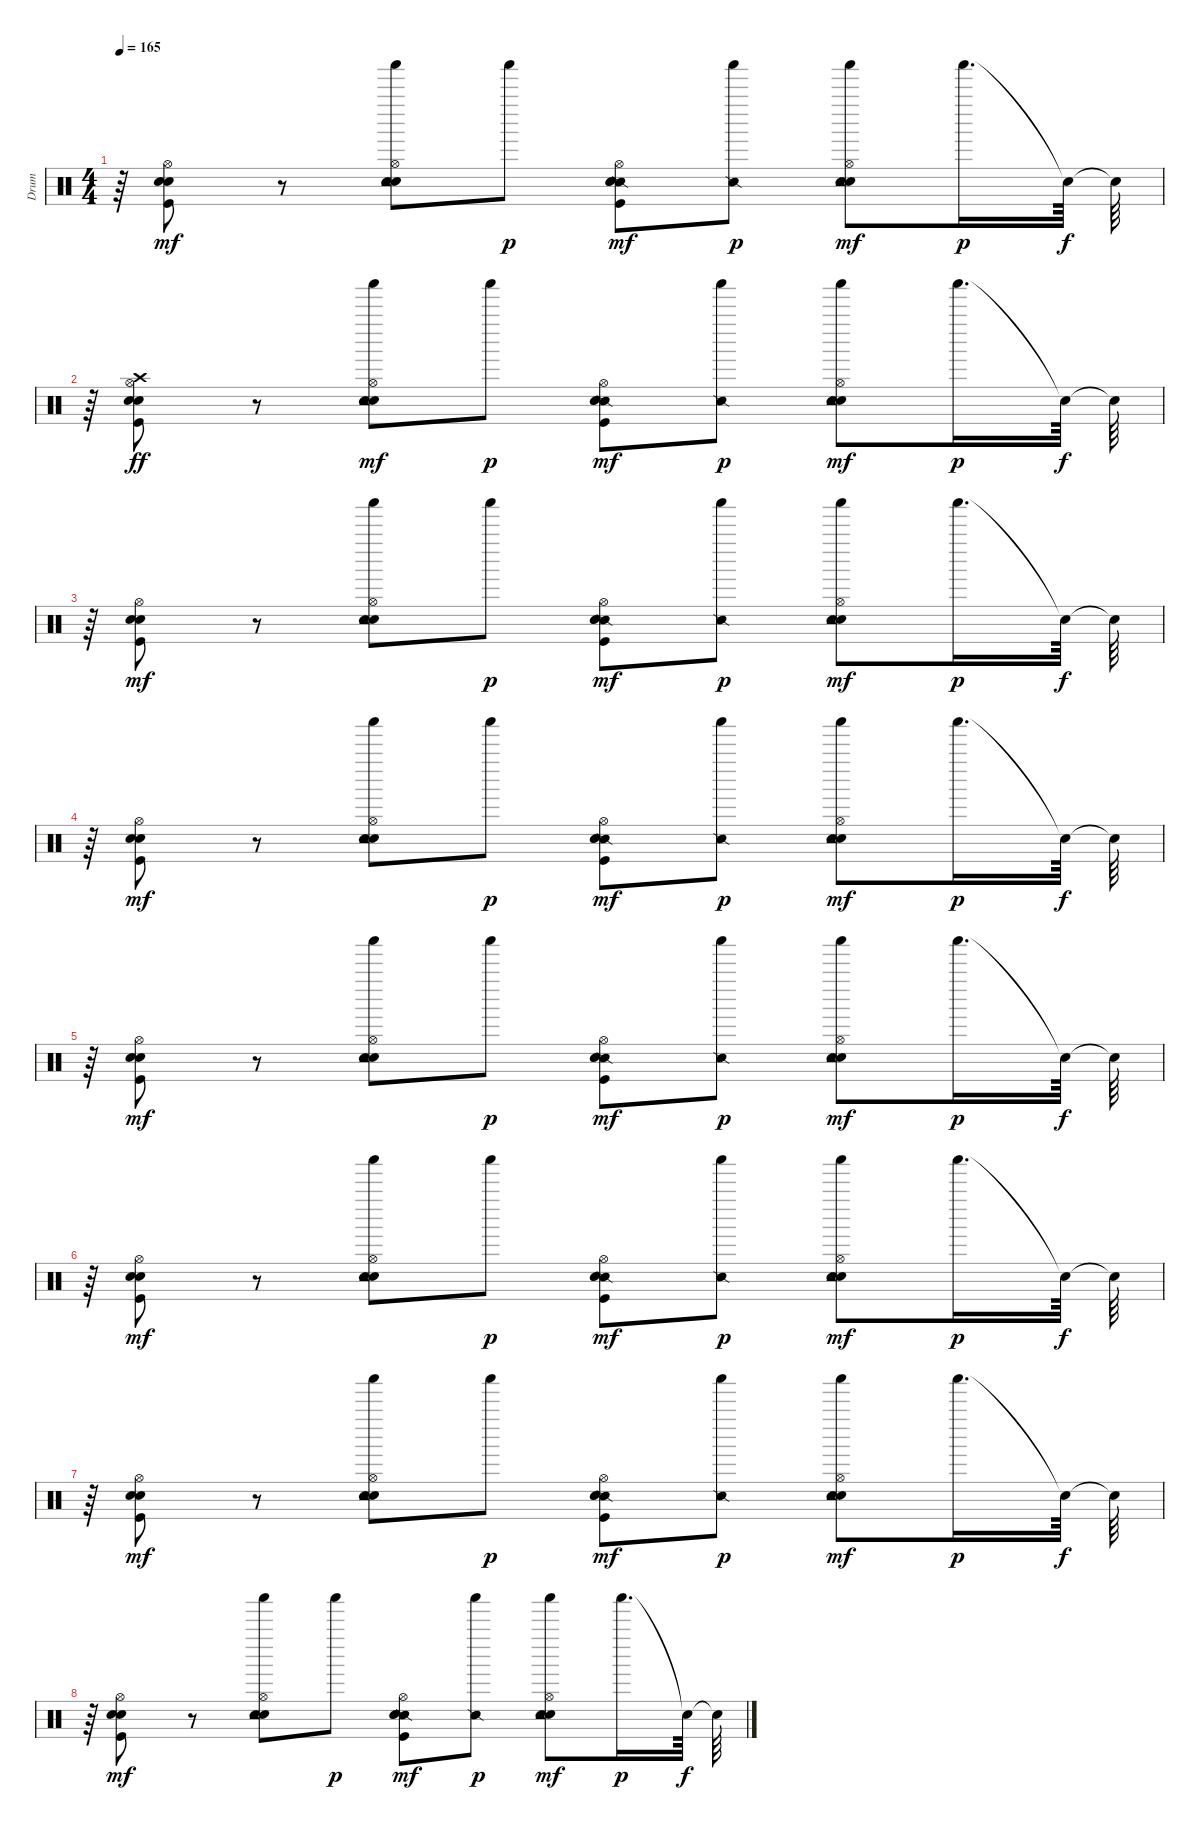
\track ("Drum" "Drum") {instrument percussion}
\staff {score}
\articulation defaults
\ts (4 4)
\tempo 165
\clef neutral
\ks c
r.64{dy f} ("Kick (hit)" "Hand Clap (hit)" "Electric Snare (hit)" "Hi-Hat (open)").8{dy mf} r.8 ("Hand Clap (hit)" "Electric Snare (hit)" "Shaker (hit)" "Tambourine (hit)" "Hi-Hat (open)").8 "Shaker (hit)".8{dy p} ("Snare (side stick) 2" "Kick (hit)" "Hand Clap (hit)" "Electric Snare (hit)" "Hi-Hat (open)").8{dy mf} ("Snare (side stick) 2" "Shaker (hit)").8{dy p} ("Hand Clap (hit)" "Tambourine (hit)" "Electric Snare (hit)" "Shaker (hit)" "Hi-Hat (open)").8{dy mf} "Shaker (hit)".16{d dy p} "Snare (hit)"{t}.64{dy f} "Snare (hit)"{t}.64 |
r.64 ("Kick (hit)" "Hand Clap (hit)" "Electric Snare (hit)" "Hi-Hat (open)" "Crash high (hit)").8{dy ff} r.8 ("Hand Clap (hit)" "Electric Snare (hit)" "Shaker (hit)" "Tambourine (hit)" "Hi-Hat (open)").8{dy mf} "Shaker (hit)".8{dy p} ("Snare (side stick) 2" "Kick (hit)" "Hand Clap (hit)" "Electric Snare (hit)" "Hi-Hat (open)").8{dy mf} ("Snare (side stick) 2" "Shaker (hit)").8{dy p} ("Hand Clap (hit)" "Tambourine (hit)" "Electric Snare (hit)" "Shaker (hit)" "Hi-Hat (open)").8{dy mf} "Shaker (hit)".16{d dy p} "Snare (hit)"{t}.64{dy f} "Snare (hit)"{t}.64 |
r.64 ("Kick (hit)" "Hand Clap (hit)" "Electric Snare (hit)" "Hi-Hat (open)").8{dy mf} r.8 ("Hand Clap (hit)" "Electric Snare (hit)" "Shaker (hit)" "Tambourine (hit)" "Hi-Hat (open)").8 "Shaker (hit)".8{dy p} ("Snare (side stick) 2" "Kick (hit)" "Hand Clap (hit)" "Electric Snare (hit)" "Hi-Hat (open)").8{dy mf} ("Snare (side stick) 2" "Shaker (hit)").8{dy p} ("Hand Clap (hit)" "Tambourine (hit)" "Electric Snare (hit)" "Shaker (hit)" "Hi-Hat (open)").8{dy mf} "Shaker (hit)".16{d dy p} "Snare (hit)"{t}.64{dy f} "Snare (hit)"{t}.64 |
r.64 ("Kick (hit)" "Hand Clap (hit)" "Electric Snare (hit)" "Hi-Hat (open)").8{dy mf} r.8 ("Hand Clap (hit)" "Electric Snare (hit)" "Shaker (hit)" "Tambourine (hit)" "Hi-Hat (open)").8 "Shaker (hit)".8{dy p} ("Snare (side stick) 2" "Kick (hit)" "Hand Clap (hit)" "Electric Snare (hit)" "Hi-Hat (open)").8{dy mf} ("Snare (side stick) 2" "Shaker (hit)").8{dy p} ("Hand Clap (hit)" "Tambourine (hit)" "Electric Snare (hit)" "Shaker (hit)" "Hi-Hat (open)").8{dy mf} "Shaker (hit)".16{d dy p} "Snare (hit)"{t}.64{dy f} "Snare (hit)"{t}.64 |
r.64 ("Kick (hit)" "Hand Clap (hit)" "Electric Snare (hit)" "Hi-Hat (open)").8{dy mf} r.8 ("Hand Clap (hit)" "Electric Snare (hit)" "Shaker (hit)" "Tambourine (hit)" "Hi-Hat (open)").8 "Shaker (hit)".8{dy p} ("Snare (side stick) 2" "Kick (hit)" "Hand Clap (hit)" "Electric Snare (hit)" "Hi-Hat (open)").8{dy mf} ("Snare (side stick) 2" "Shaker (hit)").8{dy p} ("Hand Clap (hit)" "Tambourine (hit)" "Electric Snare (hit)" "Shaker (hit)" "Hi-Hat (open)").8{dy mf} "Shaker (hit)".16{d dy p} "Snare (hit)"{t}.64{dy f} "Snare (hit)"{t}.64 |
r.64 ("Kick (hit)" "Hand Clap (hit)" "Electric Snare (hit)" "Hi-Hat (open)").8{dy mf} r.8 ("Hand Clap (hit)" "Electric Snare (hit)" "Shaker (hit)" "Tambourine (hit)" "Hi-Hat (open)").8 "Shaker (hit)".8{dy p} ("Snare (side stick) 2" "Kick (hit)" "Hand Clap (hit)" "Electric Snare (hit)" "Hi-Hat (open)").8{dy mf} ("Snare (side stick) 2" "Shaker (hit)").8{dy p} ("Hand Clap (hit)" "Tambourine (hit)" "Electric Snare (hit)" "Shaker (hit)" "Hi-Hat (open)").8{dy mf} "Shaker (hit)".16{d dy p} "Snare (hit)"{t}.64{dy f} "Snare (hit)"{t}.64 |
r.64 ("Kick (hit)" "Hand Clap (hit)" "Electric Snare (hit)" "Hi-Hat (open)").8{dy mf} r.8 ("Hand Clap (hit)" "Electric Snare (hit)" "Shaker (hit)" "Tambourine (hit)" "Hi-Hat (open)").8 "Shaker (hit)".8{dy p} ("Snare (side stick) 2" "Kick (hit)" "Hand Clap (hit)" "Electric Snare (hit)" "Hi-Hat (open)").8{dy mf} ("Snare (side stick) 2" "Shaker (hit)").8{dy p} ("Hand Clap (hit)" "Tambourine (hit)" "Electric Snare (hit)" "Shaker (hit)" "Hi-Hat (open)").8{dy mf} "Shaker (hit)".16{d dy p} "Snare (hit)"{t}.64{dy f} "Snare (hit)"{t}.64 |
r.64 ("Kick (hit)" "Hand Clap (hit)" "Electric Snare (hit)" "Hi-Hat (open)").8{dy mf} r.8 ("Hand Clap (hit)" "Electric Snare (hit)" "Shaker (hit)" "Tambourine (hit)" "Hi-Hat (open)").8 "Shaker (hit)".8{dy p} ("Snare (side stick) 2" "Kick (hit)" "Hand Clap (hit)" "Electric Snare (hit)" "Hi-Hat (open)").8{dy mf} ("Snare (side stick) 2" "Shaker (hit)").8{dy p} ("Hand Clap (hit)" "Tambourine (hit)" "Electric Snare (hit)" "Shaker (hit)" "Hi-Hat (open)").8{dy mf} "Shaker (hit)".16{d dy p} "Snare (hit)"{t}.64{dy f} "Snare (hit)"{t}.64
